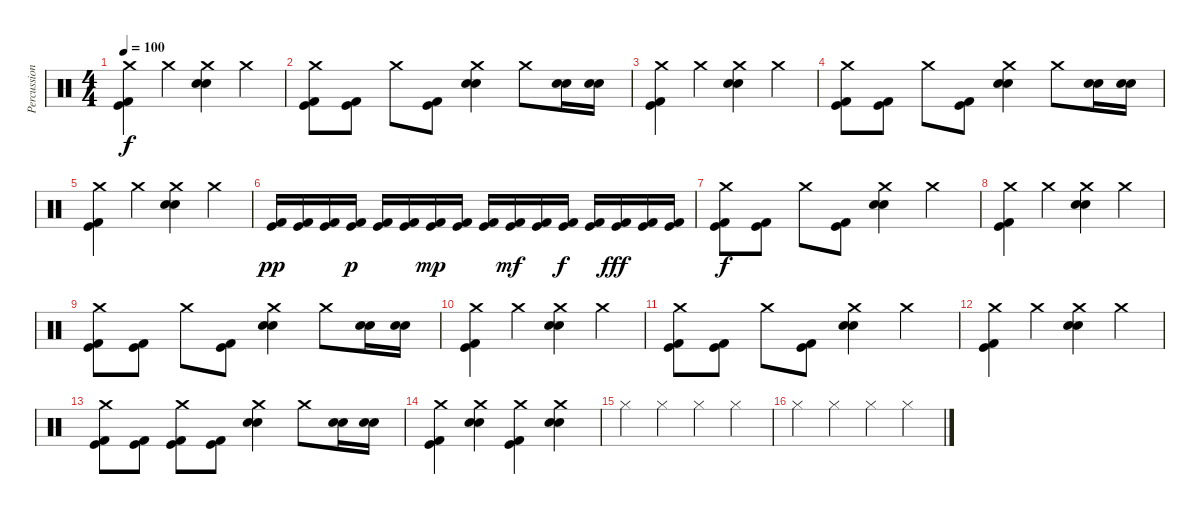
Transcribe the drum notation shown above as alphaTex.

\track ("Percussion" "Percussion") {instrument percussion}
\staff {score}
\articulation defaults
\ts (4 4)
\tempo 100
\clef neutral
\ks c
("Crash medium (hit)" "Kick (hit) 2" "Kick (hit)").4{dy f} "Crash medium (hit)".4 ("Crash medium (hit)" "Electric Snare (hit)" "Snare (hit) 2").4 "Crash medium (hit)".4 |
("Crash medium (hit)" "Kick (hit) 2" "Kick (hit)").8 ("Kick (hit) 2" "Kick (hit)").8 "Crash medium (hit)".8 ("Kick (hit) 2" "Kick (hit)").8 ("Crash medium (hit)" "Electric Snare (hit)" "Snare (hit) 2").4 "Crash medium (hit)".8 ("Electric Snare (hit)" "Snare (hit) 2").16 ("Electric Snare (hit)" "Snare (hit) 2").16 |
("Crash medium (hit)" "Kick (hit) 2" "Kick (hit)").4 "Crash medium (hit)".4 ("Crash medium (hit)" "Electric Snare (hit)" "Snare (hit) 2").4 "Crash medium (hit)".4 |
("Crash medium (hit)" "Kick (hit) 2" "Kick (hit)").8 ("Kick (hit) 2" "Kick (hit)").8 "Crash medium (hit)".8 ("Kick (hit) 2" "Kick (hit)").8 ("Crash medium (hit)" "Electric Snare (hit)" "Snare (hit) 2").4 "Crash medium (hit)".8 ("Electric Snare (hit)" "Snare (hit) 2").16 ("Electric Snare (hit)" "Snare (hit) 2").16 |
("Crash medium (hit)" "Kick (hit) 2" "Kick (hit)").4 "Crash medium (hit)".4 ("Crash medium (hit)" "Electric Snare (hit)" "Snare (hit) 2").4 "Crash medium (hit)".4 |
("Kick (hit) 2" "Kick (hit)").16{dy pp} ("Kick (hit) 2" "Kick (hit)").16 ("Kick (hit) 2" "Kick (hit)").16 ("Kick (hit) 2" "Kick (hit)").16{dy p} ("Kick (hit) 2" "Kick (hit)").16 ("Kick (hit) 2" "Kick (hit)").16 ("Kick (hit) 2" "Kick (hit)").16{dy mp} ("Kick (hit) 2" "Kick (hit)").16 ("Kick (hit) 2" "Kick (hit)").16 ("Kick (hit) 2" "Kick (hit)").16{dy mf} ("Kick (hit) 2" "Kick (hit)").16 ("Kick (hit) 2" "Kick (hit)").16{dy f} ("Kick (hit) 2" "Kick (hit)").16 ("Kick (hit) 2" "Kick (hit)").16{dy fff} ("Kick (hit) 2" "Kick (hit)").16 ("Kick (hit) 2" "Kick (hit)").16 |
("Crash medium (hit)" "Kick (hit) 2" "Kick (hit)").8{dy f} ("Kick (hit) 2" "Kick (hit)").8 "Crash medium (hit)".8 ("Kick (hit) 2" "Kick (hit)").8 ("Crash medium (hit)" "Electric Snare (hit)" "Snare (hit) 2").4 "Crash medium (hit)".4 |
("Crash medium (hit)" "Kick (hit) 2" "Kick (hit)").4 "Crash medium (hit)".4 ("Crash medium (hit)" "Electric Snare (hit)" "Snare (hit) 2").4 "Crash medium (hit)".4 |
("Crash medium (hit)" "Kick (hit) 2" "Kick (hit)").8 ("Kick (hit) 2" "Kick (hit)").8 "Crash medium (hit)".8 ("Kick (hit) 2" "Kick (hit)").8 ("Crash medium (hit)" "Electric Snare (hit)" "Snare (hit) 2").4 "Crash medium (hit)".8 ("Electric Snare (hit)" "Snare (hit) 2").16 ("Electric Snare (hit)" "Snare (hit) 2").16 |
("Crash medium (hit)" "Kick (hit) 2" "Kick (hit)").4 "Crash medium (hit)".4 ("Crash medium (hit)" "Electric Snare (hit)" "Snare (hit) 2").4 "Crash medium (hit)".4 |
("Crash medium (hit)" "Kick (hit) 2" "Kick (hit)").8 ("Kick (hit) 2" "Kick (hit)").8 "Crash medium (hit)".8 ("Kick (hit) 2" "Kick (hit)").8 ("Crash medium (hit)" "Electric Snare (hit)" "Snare (hit) 2").4 "Crash medium (hit)".4 |
("Crash medium (hit)" "Kick (hit) 2" "Kick (hit)").4 "Crash medium (hit)".4 ("Crash medium (hit)" "Electric Snare (hit)" "Snare (hit) 2").4 "Crash medium (hit)".4 |
("Crash medium (hit)" "Kick (hit) 2" "Kick (hit)").8 ("Kick (hit) 2" "Kick (hit)").8 ("Crash medium (hit)" "Kick (hit) 2" "Kick (hit)").8 ("Kick (hit) 2" "Kick (hit)").8 ("Crash medium (hit)" "Electric Snare (hit)" "Snare (hit) 2").4 "Crash medium (hit)".8 ("Electric Snare (hit)" "Snare (hit) 2").16 ("Electric Snare (hit)" "Snare (hit) 2").16 |
("Crash medium (hit)" "Kick (hit) 2" "Kick (hit)").4 ("Crash medium (hit)" "Electric Snare (hit)" "Snare (hit) 2").4 ("Crash medium (hit)" "Kick (hit) 2" "Kick (hit)").4 ("Crash medium (hit)" "Electric Snare (hit)" "Snare (hit) 2").4 |
"Hi-Hat (closed)".4 "Hi-Hat (closed)".4 "Hi-Hat (closed)".4 "Hi-Hat (closed)".4 |
"Hi-Hat (closed)".4 "Hi-Hat (closed)".4 "Hi-Hat (closed)".4 "Hi-Hat (closed)".4
